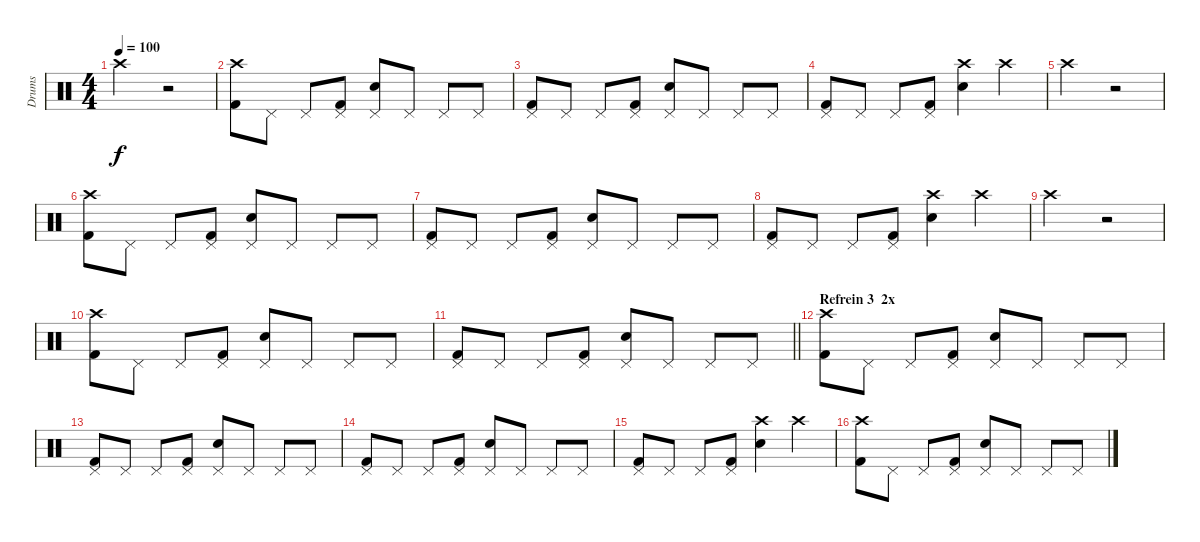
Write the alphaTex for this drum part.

\track ("Drums" "Drums") {instrument percussion}
\staff {score}
\articulation defaults
\ts (4 4)
\tempo 100
\clef neutral
\ks c "Crash high (hit)".2{dy f}
r.2 |
("Crash high (hit)" "Kick (hit) 2").8 "Pedal Hi-Hat (hit)".8 "Pedal Hi-Hat (hit)".8 ("Pedal Hi-Hat (hit)" "Kick (hit) 2").8 ("Pedal Hi-Hat (hit)" "Snare (hit) 2").8 "Pedal Hi-Hat (hit)".8 "Pedal Hi-Hat (hit)".8 "Pedal Hi-Hat (hit)".8 |
("Pedal Hi-Hat (hit)" "Kick (hit) 2").8 "Pedal Hi-Hat (hit)".8 "Pedal Hi-Hat (hit)".8 ("Pedal Hi-Hat (hit)" "Kick (hit) 2").8 ("Pedal Hi-Hat (hit)" "Snare (hit) 2").8 "Pedal Hi-Hat (hit)".8 "Pedal Hi-Hat (hit)".8 "Pedal Hi-Hat (hit)".8 |
("Pedal Hi-Hat (hit)" "Kick (hit) 2").8 "Pedal Hi-Hat (hit)".8 "Pedal Hi-Hat (hit)".8 ("Pedal Hi-Hat (hit)" "Kick (hit) 2").8 ("Crash high (hit)" "Snare (hit) 2").4 "Crash high (hit)".4 |
"Crash high (hit)".2 r.2 |
("Crash high (hit)" "Kick (hit) 2").8 "Pedal Hi-Hat (hit)".8 "Pedal Hi-Hat (hit)".8 ("Pedal Hi-Hat (hit)" "Kick (hit) 2").8 ("Pedal Hi-Hat (hit)" "Snare (hit) 2").8 "Pedal Hi-Hat (hit)".8 "Pedal Hi-Hat (hit)".8 "Pedal Hi-Hat (hit)".8 |
("Pedal Hi-Hat (hit)" "Kick (hit) 2").8 "Pedal Hi-Hat (hit)".8 "Pedal Hi-Hat (hit)".8 ("Pedal Hi-Hat (hit)" "Kick (hit) 2").8 ("Pedal Hi-Hat (hit)" "Snare (hit) 2").8 "Pedal Hi-Hat (hit)".8 "Pedal Hi-Hat (hit)".8 "Pedal Hi-Hat (hit)".8 |
("Pedal Hi-Hat (hit)" "Kick (hit) 2").8 "Pedal Hi-Hat (hit)".8 "Pedal Hi-Hat (hit)".8 ("Pedal Hi-Hat (hit)" "Kick (hit) 2").8 ("Crash high (hit)" "Snare (hit) 2").4 "Crash high (hit)".4 |
"Crash high (hit)".2 r.2 |
("Crash high (hit)" "Kick (hit) 2").8 "Pedal Hi-Hat (hit)".8 "Pedal Hi-Hat (hit)".8 ("Pedal Hi-Hat (hit)" "Kick (hit) 2").8 ("Pedal Hi-Hat (hit)" "Snare (hit) 2").8 "Pedal Hi-Hat (hit)".8 "Pedal Hi-Hat (hit)".8 "Pedal Hi-Hat (hit)".8 |
\barLineRight lightlight
("Pedal Hi-Hat (hit)" "Kick (hit) 2").8 "Pedal Hi-Hat (hit)".8 "Pedal Hi-Hat (hit)".8 ("Pedal Hi-Hat (hit)" "Kick (hit) 2").8 ("Pedal Hi-Hat (hit)" "Snare (hit) 2").8 "Pedal Hi-Hat (hit)".8 "Pedal Hi-Hat (hit)".8 "Pedal Hi-Hat (hit)".8 |
\section ("" "Refrein 3  2x")
("Crash high (hit)" "Kick (hit) 2").8 "Pedal Hi-Hat (hit)".8 "Pedal Hi-Hat (hit)".8 ("Pedal Hi-Hat (hit)" "Kick (hit) 2").8 ("Pedal Hi-Hat (hit)" "Snare (hit) 2").8 "Pedal Hi-Hat (hit)".8 "Pedal Hi-Hat (hit)".8 "Pedal Hi-Hat (hit)".8 |
("Pedal Hi-Hat (hit)" "Kick (hit) 2").8 "Pedal Hi-Hat (hit)".8 "Pedal Hi-Hat (hit)".8 ("Pedal Hi-Hat (hit)" "Kick (hit) 2").8 ("Pedal Hi-Hat (hit)" "Snare (hit) 2").8 "Pedal Hi-Hat (hit)".8 "Pedal Hi-Hat (hit)".8 "Pedal Hi-Hat (hit)".8 |
("Pedal Hi-Hat (hit)" "Kick (hit) 2").8 "Pedal Hi-Hat (hit)".8 "Pedal Hi-Hat (hit)".8 ("Pedal Hi-Hat (hit)" "Kick (hit) 2").8 ("Pedal Hi-Hat (hit)" "Snare (hit) 2").8 "Pedal Hi-Hat (hit)".8 "Pedal Hi-Hat (hit)".8 "Pedal Hi-Hat (hit)".8 |
("Pedal Hi-Hat (hit)" "Kick (hit) 2").8 "Pedal Hi-Hat (hit)".8 "Pedal Hi-Hat (hit)".8 ("Pedal Hi-Hat (hit)" "Kick (hit) 2").8 ("Crash high (hit)" "Snare (hit) 2").4 "Crash high (hit)".4 |
("Crash high (hit)" "Kick (hit) 2").8 "Pedal Hi-Hat (hit)".8 "Pedal Hi-Hat (hit)".8 ("Pedal Hi-Hat (hit)" "Kick (hit) 2").8 ("Pedal Hi-Hat (hit)" "Snare (hit) 2").8 "Pedal Hi-Hat (hit)".8 "Pedal Hi-Hat (hit)".8 "Pedal Hi-Hat (hit)".8
